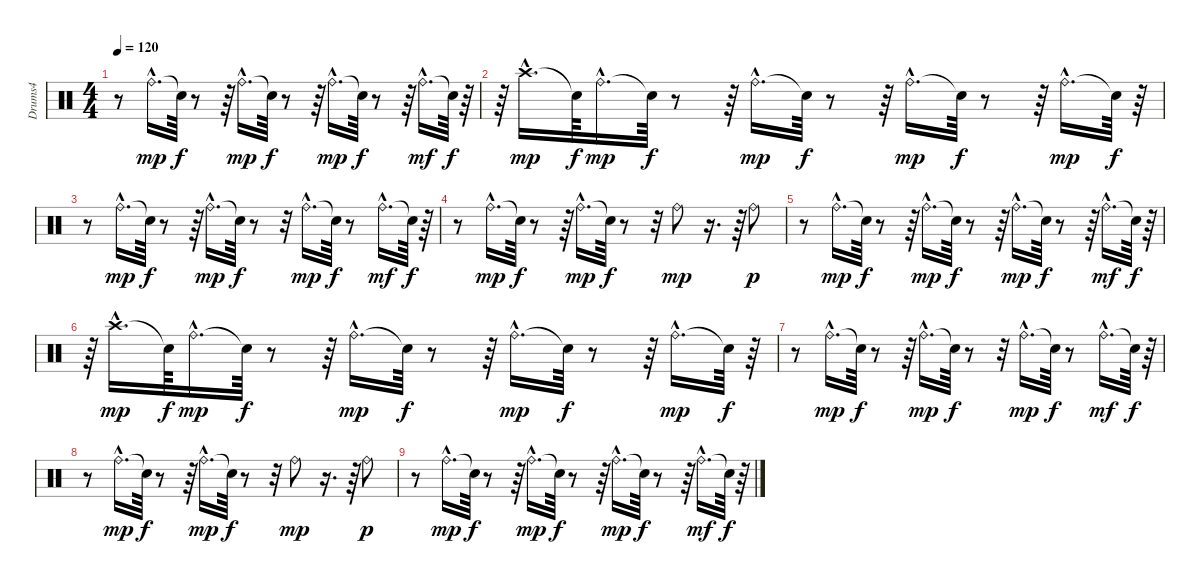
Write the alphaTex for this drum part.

\track ("Drums4" "Drums4") {instrument percussion}
\staff {score}
\articulation defaults
\ts (4 4)
\tempo 120
\clef neutral
\ks c
r.8{dy p} "Ride (bell)"{hac}.16{d dy mp} "Snare (hit)"{t}.64{dy f} r.8 r.64 "Ride (bell)"{hac}.16{d dy mp} "Snare (hit)"{t}.64{dy f} r.8 r.64 "Ride (bell)"{hac}.16{d dy mp} "Snare (hit)"{t}.64{dy f} r.8 r.64 "Ride (bell)"{hac}.16{d dy mf} "Snare (hit)"{t}.64{dy f} r.64 |
r.64 "Crash high (hit)"{hac}.16{d dy mp} "Snare (hit)"{t}.64{dy f} "Ride (bell)"{hac}.16{d dy mp} "Snare (hit)"{t}.64{dy f} r.8 r.64 "Ride (bell)"{hac}.16{d dy mp} "Snare (hit)"{t}.64{dy f} r.8 r.64 "Ride (bell)"{hac}.16{d dy mp} "Snare (hit)"{t}.64{dy f} r.8 r.64 "Ride (bell)"{hac}.16{d dy mp} "Snare (hit)"{t}.64{dy f} r.64 |
r.8 "Ride (bell)"{hac}.16{d dy mp} "Snare (hit)"{t}.64{dy f} r.8 r.64 "Ride (bell)"{hac}.16{d dy mp} "Snare (hit)"{t}.64{dy f} r.8 r.32 "Ride (bell)"{hac}.16{d dy mp} "Snare (hit)"{t}.64{dy f} r.8 "Ride (bell)"{hac}.16{d dy mf} "Snare (hit)"{t}.64{dy f} r.64 |
r.8 "Ride (bell)"{hac}.16{d dy mp} "Snare (hit)"{t}.64{dy f} r.8 r.64 "Ride (bell)"{hac}.16{d dy mp} "Snare (hit)"{t}.64{dy f} r.8 r.32 "Ride (bell)".8{dy mp} r.16{d} r.64 "Ride (bell)".8{dy p} |
r.8 "Ride (bell)"{hac}.16{d dy mp} "Snare (hit)"{t}.64{dy f} r.8 r.64 "Ride (bell)"{hac}.16{d dy mp} "Snare (hit)"{t}.64{dy f} r.8 r.64 "Ride (bell)"{hac}.16{d dy mp} "Snare (hit)"{t}.64{dy f} r.8 r.64 "Ride (bell)"{hac}.16{d dy mf} "Snare (hit)"{t}.64{dy f} r.64 |
r.64 "Crash high (hit)"{hac}.16{d dy mp} "Snare (hit)"{t}.64{dy f} "Ride (bell)"{hac}.16{d dy mp} "Snare (hit)"{t}.64{dy f} r.8 r.64 "Ride (bell)"{hac}.16{d dy mp} "Snare (hit)"{t}.64{dy f} r.8 r.64 "Ride (bell)"{hac}.16{d dy mp} "Snare (hit)"{t}.64{dy f} r.8 r.64 "Ride (bell)"{hac}.16{d dy mp} "Snare (hit)"{t}.64{dy f} r.64 |
r.8 "Ride (bell)"{hac}.16{d dy mp} "Snare (hit)"{t}.64{dy f} r.8 r.64 "Ride (bell)"{hac}.16{d dy mp} "Snare (hit)"{t}.64{dy f} r.8 r.32 "Ride (bell)"{hac}.16{d dy mp} "Snare (hit)"{t}.64{dy f} r.8 "Ride (bell)"{hac}.16{d dy mf} "Snare (hit)"{t}.64{dy f} r.64 |
r.8 "Ride (bell)"{hac}.16{d dy mp} "Snare (hit)"{t}.64{dy f} r.8 r.64 "Ride (bell)"{hac}.16{d dy mp} "Snare (hit)"{t}.64{dy f} r.8 r.32 "Ride (bell)".8{dy mp} r.16{d} r.64 "Ride (bell)".8{dy p} |
r.8 "Ride (bell)"{hac}.16{d dy mp} "Snare (hit)"{t}.64{dy f} r.8 r.64 "Ride (bell)"{hac}.16{d dy mp} "Snare (hit)"{t}.64{dy f} r.8 r.64 "Ride (bell)"{hac}.16{d dy mp} "Snare (hit)"{t}.64{dy f} r.8 r.64 "Ride (bell)"{hac}.16{d dy mf} "Snare (hit)"{t}.64{dy f} r.64
